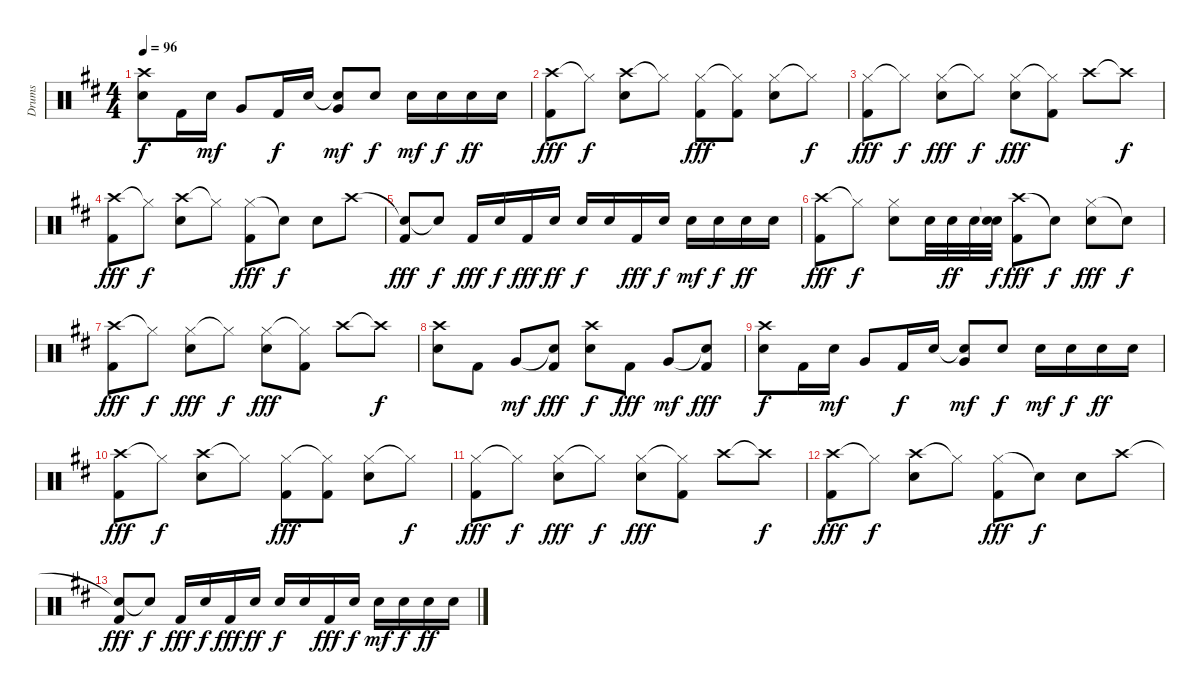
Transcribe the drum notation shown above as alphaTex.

\track ("Drums" "Drums") {instrument percussion}
\staff {score}
\articulation defaults
\ts (4 4)
\tempo 96
\clef neutral
\ks d
("Crash high (hit)" "Snare (hit) 2").8{dy f} "Kick (hit) 2".16 "Snare (hit) 2".16{dy mf} "Very Low Tom (hit)".8 "Kick (hit) 2".16{dy f} "Snare (hit) 2".16 ("Snare (hit)"{t} "Very Low Tom (hit)").8{dy mf} "Snare (hit) 2".8{dy f} "Snare (hit) 2".16{dy mf} "Snare (hit) 2".16{dy f} "Snare (hit) 2".16{dy ff} "Snare (hit) 2".16 |
("Crash high (hit)" "Kick (hit) 2").8{dy fff} "Hi-Hat (closed)"{t}.8{dy f} ("Crash high (hit)" "Snare (hit) 2").8 "Hi-Hat (closed)"{t}.8 ("Hi-Hat (closed)" "Kick (hit) 2").8{dy fff} ("Hi-Hat (closed)"{t} "Kick (hit) 2").8 ("Hi-Hat (closed)" "Snare (hit) 2").8 "Hi-Hat (closed)"{t}.8{dy f} |
("Hi-Hat (closed)" "Kick (hit) 2").8{dy fff} "Hi-Hat (closed)"{t}.8{dy f} ("Hi-Hat (closed)" "Snare (hit) 2").8{dy fff} "Hi-Hat (closed)"{t}.8{dy f} ("Hi-Hat (closed)" "Snare (hit) 2").8{dy fff} ("Hi-Hat (closed)"{t} "Kick (hit) 2").8 "Crash high (hit)".8 "Crash high (hit)"{t}.8{dy f} |
("Crash high (hit)" "Kick (hit) 2").8{dy fff} "Hi-Hat (closed)"{t}.8{dy f} ("Crash high (hit)" "Snare (hit) 2").8 "Hi-Hat (closed)"{t}.8 ("Hi-Hat (closed)" "Kick (hit) 2").8{dy fff} "Snare (hit)"{t}.8{dy f} "Snare (hit) 2".8 "Crash high (hit)".8 |
("Snare (hit)"{t} "Kick (hit) 2").8{dy fff} "Snare (hit)"{t}.8{dy f} "Kick (hit) 2".16{dy fff} "Snare (hit) 2".16{dy f} "Kick (hit) 2".16{dy fff} "Snare (hit) 2".16{dy ff} "Snare (hit) 2".16{dy f} "Snare (hit) 2".16 "Kick (hit) 2".16{dy fff} "Snare (hit) 2".16{dy f} "Snare (hit) 2".16{dy mf} "Snare (hit) 2".16{dy f} "Snare (hit) 2".16{dy ff} "Snare (hit) 2".16 |
("Crash high (hit)" "Kick (hit) 2").8{dy fff} "Hi-Hat (closed)"{t}.8{dy f} ("Hi-Hat (closed)" "Snare (hit) 2").8 "Snare (hit) 2".32 "Snare (hit) 2".32{dy ff} "Snare (hit) 2".32 ("Snare (hit)"{t} "Snare (hit) 2").32{dy f} ("Crash high (hit)" "Kick (hit) 2").8{dy fff} "Snare (hit)"{t}.8{dy f} ("Hi-Hat (closed)" "Snare (hit) 2").8{dy fff} "Snare (hit)"{t}.8{dy f} |
("Crash high (hit)" "Kick (hit) 2").8{dy fff} "Hi-Hat (closed)"{t}.8{dy f} ("Hi-Hat (closed)" "Snare (hit) 2").8{dy fff} "Hi-Hat (closed)"{t}.8{dy f} ("Hi-Hat (closed)" "Snare (hit) 2").8{dy fff} ("Hi-Hat (closed)"{t} "Kick (hit) 2").8 "Crash high (hit)".8 "Crash high (hit)"{t}.8{dy f} |
("Crash high (hit)" "Snare (hit) 2").8 "Kick (hit) 2".8 "Very Low Tom (hit)".8{dy mf} ("Snare (hit)"{t} "Kick (hit) 2").8{dy fff} ("Crash high (hit)" "Snare (hit) 2").8{dy f} "Kick (hit) 2".8{dy fff} "Very Low Tom (hit)".8{dy mf} ("Snare (hit)"{t} "Kick (hit) 2").8{dy fff} |
("Crash high (hit)" "Snare (hit) 2").8{dy f} "Kick (hit) 2".16 "Snare (hit) 2".16{dy mf} "Very Low Tom (hit)".8 "Kick (hit) 2".16{dy f} "Snare (hit) 2".16 ("Snare (hit)"{t} "Very Low Tom (hit)").8{dy mf} "Snare (hit) 2".8{dy f} "Snare (hit) 2".16{dy mf} "Snare (hit) 2".16{dy f} "Snare (hit) 2".16{dy ff} "Snare (hit) 2".16 |
("Crash high (hit)" "Kick (hit) 2").8{dy fff} "Hi-Hat (closed)"{t}.8{dy f} ("Crash high (hit)" "Snare (hit) 2").8 "Hi-Hat (closed)"{t}.8 ("Hi-Hat (closed)" "Kick (hit) 2").8{dy fff} ("Hi-Hat (closed)"{t} "Kick (hit) 2").8 ("Hi-Hat (closed)" "Snare (hit) 2").8 "Hi-Hat (closed)"{t}.8{dy f} |
("Hi-Hat (closed)" "Kick (hit) 2").8{dy fff} "Hi-Hat (closed)"{t}.8{dy f} ("Hi-Hat (closed)" "Snare (hit) 2").8{dy fff} "Hi-Hat (closed)"{t}.8{dy f} ("Hi-Hat (closed)" "Snare (hit) 2").8{dy fff} ("Hi-Hat (closed)"{t} "Kick (hit) 2").8 "Crash high (hit)".8 "Crash high (hit)"{t}.8{dy f} |
("Crash high (hit)" "Kick (hit) 2").8{dy fff} "Hi-Hat (closed)"{t}.8{dy f} ("Crash high (hit)" "Snare (hit) 2").8 "Hi-Hat (closed)"{t}.8 ("Hi-Hat (closed)" "Kick (hit) 2").8{dy fff} "Snare (hit)"{t}.8{dy f} "Snare (hit) 2".8 "Crash high (hit)".8 |
("Snare (hit)"{t} "Kick (hit) 2").8{dy fff} "Snare (hit)"{t}.8{dy f} "Kick (hit) 2".16{dy fff} "Snare (hit) 2".16{dy f} "Kick (hit) 2".16{dy fff} "Snare (hit) 2".16{dy ff} "Snare (hit) 2".16{dy f} "Snare (hit) 2".16 "Kick (hit) 2".16{dy fff} "Snare (hit) 2".16{dy f} "Snare (hit) 2".16{dy mf} "Snare (hit) 2".16{dy f} "Snare (hit) 2".16{dy ff} "Snare (hit) 2".16
